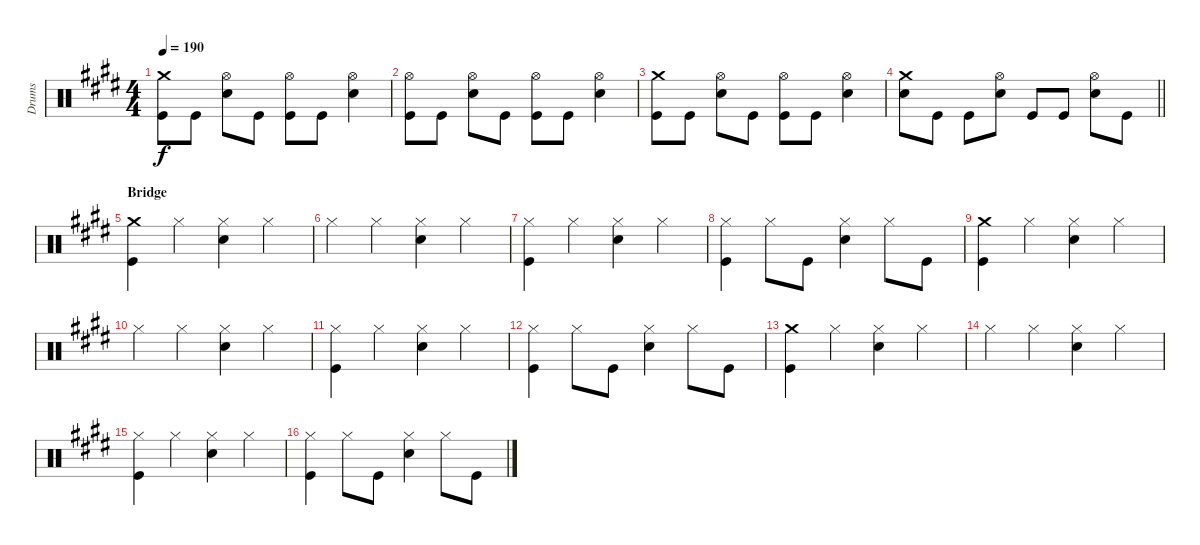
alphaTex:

\track ("Drums" "Drums") {instrument percussion}
\staff {score}
\articulation defaults
\ts (4 4)
\tempo 190
\clef neutral
\ks e
("Kick (hit)" "Crash medium (hit)").8{dy f} "Kick (hit)".8 ("Snare (hit) 2" "Hi-Hat (open)").8 "Kick (hit)".8 ("Kick (hit)" "Hi-Hat (open)").8 "Kick (hit)".8 ("Snare (hit) 2" "Hi-Hat (open)").4 |
("Kick (hit)" "Hi-Hat (open)").8 "Kick (hit)".8 ("Snare (hit) 2" "Hi-Hat (open)").8 "Kick (hit)".8 ("Kick (hit)" "Hi-Hat (open)").8 "Kick (hit)".8 ("Snare (hit) 2" "Hi-Hat (open)").4 |
("Kick (hit)" "Crash medium (hit)").8 "Kick (hit)".8 ("Snare (hit) 2" "Hi-Hat (open)").8 "Kick (hit)".8 ("Kick (hit)" "Hi-Hat (open)").8 "Kick (hit)".8 ("Snare (hit) 2" "Hi-Hat (open)").4 |
\barLineRight lightlight
("Snare (hit) 2" "Crash medium (hit)").8 "Kick (hit)".8 "Kick (hit)".8 ("Snare (hit) 2" "Hi-Hat (open)").8 "Kick (hit)".8 "Kick (hit)".8 ("Snare (hit) 2" "Hi-Hat (open)").8 "Kick (hit)".8 |
\section ("" "Bridge")
("Kick (hit)" "Crash medium (hit)").4 "Hi-Hat (closed)".4 ("Snare (hit) 2" "Hi-Hat (closed)").4 "Hi-Hat (closed)".4 |
"Hi-Hat (closed)".4 "Hi-Hat (closed)".4 ("Hi-Hat (closed)" "Snare (hit) 2").4 "Hi-Hat (closed)".4 |
("Hi-Hat (closed)" "Kick (hit)").4 "Hi-Hat (closed)".4 ("Hi-Hat (closed)" "Snare (hit) 2").4 "Hi-Hat (closed)".4 |
("Hi-Hat (closed)" "Kick (hit)").4 "Hi-Hat (closed)".8 "Kick (hit)".8 ("Hi-Hat (closed)" "Snare (hit) 2").4 "Hi-Hat (closed)".8 "Kick (hit)".8 |
("Kick (hit)" "Crash medium (hit)").4 "Hi-Hat (closed)".4 ("Snare (hit) 2" "Hi-Hat (closed)").4 "Hi-Hat (closed)".4 |
"Hi-Hat (closed)".4 "Hi-Hat (closed)".4 ("Hi-Hat (closed)" "Snare (hit) 2").4 "Hi-Hat (closed)".4 |
("Hi-Hat (closed)" "Kick (hit)").4 "Hi-Hat (closed)".4 ("Hi-Hat (closed)" "Snare (hit) 2").4 "Hi-Hat (closed)".4 |
("Hi-Hat (closed)" "Kick (hit)").4 "Hi-Hat (closed)".8 "Kick (hit)".8 ("Hi-Hat (closed)" "Snare (hit) 2").4 "Hi-Hat (closed)".8 "Kick (hit)".8 |
("Kick (hit)" "Crash medium (hit)").4 "Hi-Hat (closed)".4 ("Snare (hit) 2" "Hi-Hat (closed)").4 "Hi-Hat (closed)".4 |
"Hi-Hat (closed)".4 "Hi-Hat (closed)".4 ("Hi-Hat (closed)" "Snare (hit) 2").4 "Hi-Hat (closed)".4 |
("Hi-Hat (closed)" "Kick (hit)").4 "Hi-Hat (closed)".4 ("Hi-Hat (closed)" "Snare (hit) 2").4 "Hi-Hat (closed)".4 |
("Hi-Hat (closed)" "Kick (hit)").4 "Hi-Hat (closed)".8 "Kick (hit)".8 ("Hi-Hat (closed)" "Snare (hit) 2").4 "Hi-Hat (closed)".8 "Kick (hit)".8
